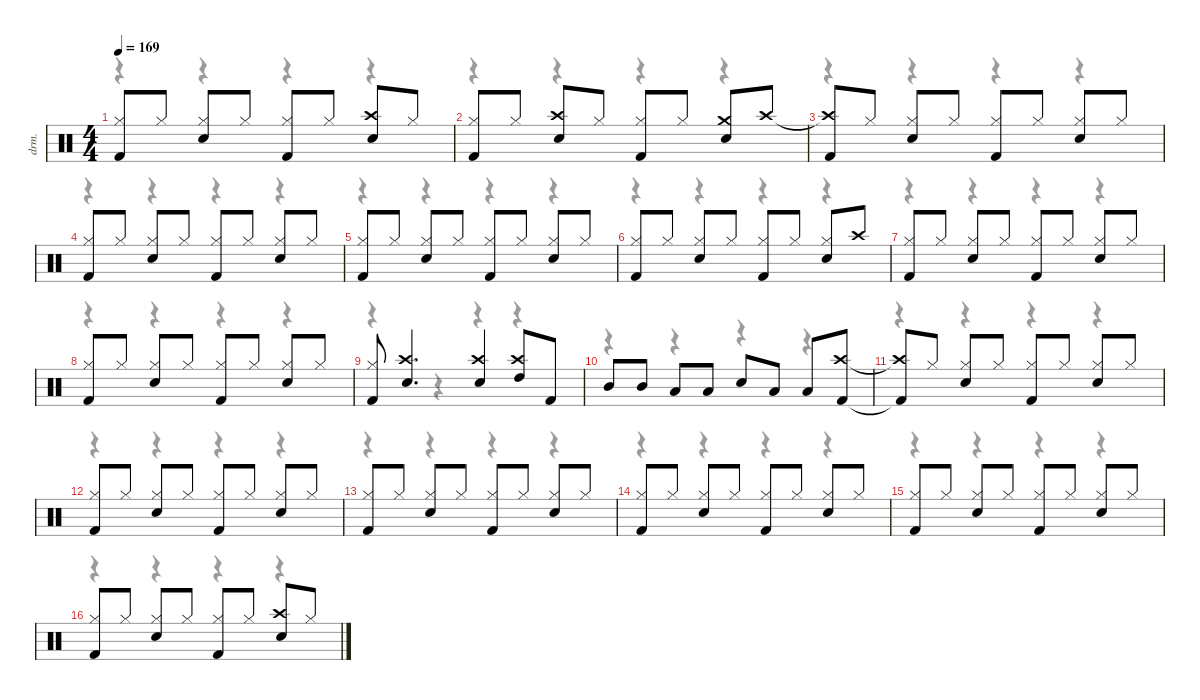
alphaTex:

\defaultSystemsLayout 4
\hideDynamics
\bracketExtendMode nobrackets
\otherSystemsTrackNameOrientation horizontal
\track ("Drums" "drm.") {instrument percussion}
\staff {score}
\articulation defaults
\voice
\ts (4 4)
\tempo 169
\clef neutral
\ks c
("Hi-Hat (closed)" "Kick (hit) 2").8{dy f} "Hi-Hat (closed)".8 ("Hi-Hat (closed)" "Snare (hit) 2").8 "Hi-Hat (closed)".8 ("Hi-Hat (closed)" "Kick (hit) 2").8 "Hi-Hat (closed)".8 ("Crash high (hit)" "Snare (hit) 2").8 "Hi-Hat (closed)".8 |
("Hi-Hat (closed)" "Kick (hit) 2").8 "Hi-Hat (closed)".8 ("Crash high (hit)" "Snare (hit) 2").8 "Hi-Hat (closed)".8 ("Hi-Hat (closed)" "Kick (hit) 2").8 "Hi-Hat (closed)".8 ("Crash medium (hit)" "Snare (hit) 2").8 "Crash high (hit)".8 |
("Crash high (hit)"{t} "Kick (hit) 2").8 "Hi-Hat (closed)".8 ("Hi-Hat (closed)" "Snare (hit) 2").8 "Hi-Hat (closed)".8 ("Hi-Hat (closed)" "Kick (hit) 2").8 "Hi-Hat (closed)".8 ("Hi-Hat (closed)" "Snare (hit) 2").8 "Hi-Hat (closed)".8 |
("Hi-Hat (closed)" "Kick (hit) 2").8 "Hi-Hat (closed)".8 ("Hi-Hat (closed)" "Snare (hit) 2").8 "Hi-Hat (closed)".8 ("Hi-Hat (closed)" "Kick (hit) 2").8 "Hi-Hat (closed)".8 ("Hi-Hat (closed)" "Snare (hit) 2").8 "Hi-Hat (closed)".8 |
("Hi-Hat (closed)" "Kick (hit) 2").8 "Hi-Hat (closed)".8 ("Hi-Hat (closed)" "Snare (hit) 2").8 "Hi-Hat (closed)".8 ("Hi-Hat (closed)" "Kick (hit) 2").8 "Hi-Hat (closed)".8 ("Hi-Hat (closed)" "Snare (hit) 2").8 "Hi-Hat (closed)".8 |
("Hi-Hat (closed)" "Kick (hit) 2").8 "Hi-Hat (closed)".8 ("Hi-Hat (closed)" "Snare (hit) 2").8 "Hi-Hat (closed)".8 ("Hi-Hat (closed)" "Kick (hit) 2").8 "Hi-Hat (closed)".8 ("Hi-Hat (closed)" "Snare (hit) 2").8 "Crash high (hit)".8 |
("Hi-Hat (closed)" "Kick (hit) 2").8 "Hi-Hat (closed)".8 ("Hi-Hat (closed)" "Snare (hit) 2").8 "Hi-Hat (closed)".8 ("Hi-Hat (closed)" "Kick (hit) 2").8 "Hi-Hat (closed)".8 ("Hi-Hat (closed)" "Snare (hit) 2").8 "Hi-Hat (closed)".8 |
("Hi-Hat (closed)" "Kick (hit) 2").8 "Hi-Hat (closed)".8 ("Hi-Hat (closed)" "Snare (hit) 2").8 "Hi-Hat (closed)".8 ("Hi-Hat (closed)" "Kick (hit) 2").8 "Hi-Hat (closed)".8 ("Hi-Hat (closed)" "Snare (hit) 2").8 "Hi-Hat (closed)".8 |
("Hi-Hat (closed)" "Kick (hit) 2").8{dy ff} ("Crash high (hit)" "Snare (hit) 2").4{d} ("Crash high (hit)" "Snare (hit) 2").4 ("Crash high (hit)" "High Tom (hit)").8 "Kick (hit) 2".8 |
"Mid Tom (hit)".8 "Mid Tom (hit)".8 "Low Tom (hit)".8{dy f} "Low Tom (hit)".8 "Snare (hit) 2".8 "Low Tom (hit)".8{dy ff} "Low Tom (hit)".8 ("Crash high (hit)" "Kick (hit) 2").8 |
("Crash high (hit)"{t} "Kick (hit) 2"{t}).8{dy f} "Hi-Hat (closed)".8 ("Hi-Hat (closed)" "Snare (hit) 2").8 "Hi-Hat (closed)".8 ("Hi-Hat (closed)" "Kick (hit) 2").8 "Hi-Hat (closed)".8 ("Hi-Hat (closed)" "Snare (hit) 2").8 "Hi-Hat (closed)".8 |
("Hi-Hat (closed)" "Kick (hit) 2").8 "Hi-Hat (closed)".8 ("Hi-Hat (closed)" "Snare (hit) 2").8 "Hi-Hat (closed)".8 ("Hi-Hat (closed)" "Kick (hit) 2").8 "Hi-Hat (closed)".8 ("Hi-Hat (closed)" "Snare (hit) 2").8 "Hi-Hat (closed)".8 |
("Hi-Hat (closed)" "Kick (hit) 2").8 "Hi-Hat (closed)".8 ("Hi-Hat (closed)" "Snare (hit) 2").8 "Hi-Hat (closed)".8 ("Hi-Hat (closed)" "Kick (hit) 2").8 "Hi-Hat (closed)".8 ("Hi-Hat (closed)" "Snare (hit) 2").8 "Hi-Hat (closed)".8 |
("Hi-Hat (closed)" "Kick (hit) 2").8 "Hi-Hat (closed)".8 ("Hi-Hat (closed)" "Snare (hit) 2").8 "Hi-Hat (closed)".8 ("Hi-Hat (closed)" "Kick (hit) 2").8 "Hi-Hat (closed)".8 ("Hi-Hat (closed)" "Snare (hit) 2").8 "Hi-Hat (closed)".8 |
("Hi-Hat (closed)" "Kick (hit) 2").8 "Hi-Hat (closed)".8 ("Hi-Hat (closed)" "Snare (hit) 2").8 "Hi-Hat (closed)".8 ("Hi-Hat (closed)" "Kick (hit) 2").8 "Hi-Hat (closed)".8 ("Hi-Hat (closed)" "Snare (hit) 2").8 "Hi-Hat (closed)".8 |
("Hi-Hat (closed)" "Kick (hit) 2").8 "Hi-Hat (closed)".8 ("Hi-Hat (closed)" "Snare (hit) 2").8 "Hi-Hat (closed)".8 ("Hi-Hat (closed)" "Kick (hit) 2").8 "Hi-Hat (closed)".8 ("Crash high (hit)" "Snare (hit) 2").8 "Hi-Hat (closed)".8
\voice
\clef neutral
\ottava regular
\simile none
\ks c
r.4{dy mf} r.4 r.4 r.4 |
r.4 r.4 r.4 r.4 |
r.4 r.4 r.4 r.4 |
r.4 r.4 r.4 r.4 |
r.4 r.4 r.4 r.4 |
r.4 r.4 r.4 r.4 |
r.4 r.4 r.4 r.4 |
r.4 r.4 r.4 r.4 |
r.4 r.4 r.4 r.4 |
r.4 r.4 r.4 r.4 |
r.4 r.4 r.4 r.4 |
r.4 r.4 r.4 r.4 |
r.4 r.4 r.4 r.4 |
r.4 r.4 r.4 r.4 |
r.4 r.4 r.4 r.4 |
r.4 r.4 r.4 r.4
